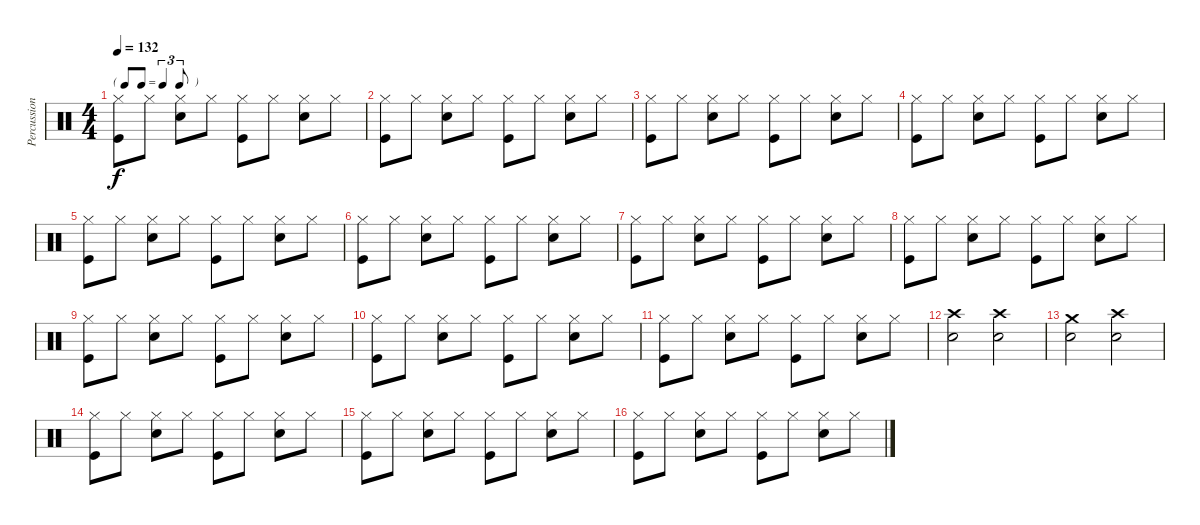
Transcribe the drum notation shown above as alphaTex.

\track ("Percussion" "Percussion") {instrument percussion}
\staff {score}
\articulation defaults
\ts (4 4)
\tf triplet8th
\tempo 132
\clef neutral
\ks c
("Hi-Hat (closed)" "Kick (hit)").8{dy f} "Hi-Hat (closed)".8 ("Hi-Hat (closed)" "Snare (hit) 2").8 "Hi-Hat (closed)".8 ("Hi-Hat (closed)" "Kick (hit)").8 "Hi-Hat (closed)".8 ("Hi-Hat (closed)" "Snare (hit) 2").8 "Hi-Hat (closed)".8 |
("Hi-Hat (closed)" "Kick (hit)").8 "Hi-Hat (closed)".8 ("Hi-Hat (closed)" "Snare (hit) 2").8 "Hi-Hat (closed)".8 ("Hi-Hat (closed)" "Kick (hit)").8 "Hi-Hat (closed)".8 ("Hi-Hat (closed)" "Snare (hit) 2").8 "Hi-Hat (closed)".8 |
("Hi-Hat (closed)" "Kick (hit)").8 "Hi-Hat (closed)".8 ("Hi-Hat (closed)" "Snare (hit) 2").8 "Hi-Hat (closed)".8 ("Hi-Hat (closed)" "Kick (hit)").8 "Hi-Hat (closed)".8 ("Hi-Hat (closed)" "Snare (hit) 2").8 "Hi-Hat (closed)".8 |
("Hi-Hat (closed)" "Kick (hit)").8 "Hi-Hat (closed)".8 ("Hi-Hat (closed)" "Snare (hit) 2").8 "Hi-Hat (closed)".8 ("Hi-Hat (closed)" "Kick (hit)").8 "Hi-Hat (closed)".8 ("Hi-Hat (closed)" "Snare (hit) 2").8 "Hi-Hat (closed)".8 |
("Hi-Hat (closed)" "Kick (hit)").8 "Hi-Hat (closed)".8 ("Hi-Hat (closed)" "Snare (hit) 2").8 "Hi-Hat (closed)".8 ("Hi-Hat (closed)" "Kick (hit)").8 "Hi-Hat (closed)".8 ("Hi-Hat (closed)" "Snare (hit) 2").8 "Hi-Hat (closed)".8 |
("Hi-Hat (closed)" "Kick (hit)").8 "Hi-Hat (closed)".8 ("Hi-Hat (closed)" "Snare (hit) 2").8 "Hi-Hat (closed)".8 ("Hi-Hat (closed)" "Kick (hit)").8 "Hi-Hat (closed)".8 ("Hi-Hat (closed)" "Snare (hit) 2").8 "Hi-Hat (closed)".8 |
("Hi-Hat (closed)" "Kick (hit)").8 "Hi-Hat (closed)".8 ("Hi-Hat (closed)" "Snare (hit) 2").8 "Hi-Hat (closed)".8 ("Hi-Hat (closed)" "Kick (hit)").8 "Hi-Hat (closed)".8 ("Hi-Hat (closed)" "Snare (hit) 2").8 "Hi-Hat (closed)".8 |
("Hi-Hat (closed)" "Kick (hit)").8 "Hi-Hat (closed)".8 ("Hi-Hat (closed)" "Snare (hit) 2").8 "Hi-Hat (closed)".8 ("Hi-Hat (closed)" "Kick (hit)").8 "Hi-Hat (closed)".8 ("Hi-Hat (closed)" "Snare (hit) 2").8 "Hi-Hat (closed)".8 |
("Hi-Hat (closed)" "Kick (hit)").8 "Hi-Hat (closed)".8 ("Hi-Hat (closed)" "Snare (hit) 2").8 "Hi-Hat (closed)".8 ("Hi-Hat (closed)" "Kick (hit)").8 "Hi-Hat (closed)".8 ("Hi-Hat (closed)" "Snare (hit) 2").8 "Hi-Hat (closed)".8 |
("Hi-Hat (closed)" "Kick (hit)").8 "Hi-Hat (closed)".8 ("Hi-Hat (closed)" "Snare (hit) 2").8 "Hi-Hat (closed)".8 ("Hi-Hat (closed)" "Kick (hit)").8 "Hi-Hat (closed)".8 ("Hi-Hat (closed)" "Snare (hit) 2").8 "Hi-Hat (closed)".8 |
("Hi-Hat (closed)" "Kick (hit)").8 "Hi-Hat (closed)".8 ("Hi-Hat (closed)" "Snare (hit) 2").8 "Hi-Hat (closed)".8 ("Hi-Hat (closed)" "Kick (hit)").8 "Hi-Hat (closed)".8 ("Hi-Hat (closed)" "Snare (hit) 2").8 "Hi-Hat (closed)".8 |
("Crash high (hit)" "Snare (hit) 2").2 ("Crash high (hit)" "Snare (hit) 2").2 |
("Crash medium (hit)" "Snare (hit) 2").2 ("Crash high (hit)" "Snare (hit) 2").2 |
("Hi-Hat (closed)" "Kick (hit)").8 "Hi-Hat (closed)".8 ("Hi-Hat (closed)" "Snare (hit) 2").8 "Hi-Hat (closed)".8 ("Hi-Hat (closed)" "Kick (hit)").8 "Hi-Hat (closed)".8 ("Hi-Hat (closed)" "Snare (hit) 2").8 "Hi-Hat (closed)".8 |
("Hi-Hat (closed)" "Kick (hit)").8 "Hi-Hat (closed)".8 ("Hi-Hat (closed)" "Snare (hit) 2").8 "Hi-Hat (closed)".8 ("Hi-Hat (closed)" "Kick (hit)").8 "Hi-Hat (closed)".8 ("Hi-Hat (closed)" "Snare (hit) 2").8 "Hi-Hat (closed)".8 |
("Hi-Hat (closed)" "Kick (hit)").8 "Hi-Hat (closed)".8 ("Hi-Hat (closed)" "Snare (hit) 2").8 "Hi-Hat (closed)".8 ("Hi-Hat (closed)" "Kick (hit)").8 "Hi-Hat (closed)".8 ("Hi-Hat (closed)" "Snare (hit) 2").8 "Hi-Hat (closed)".8
